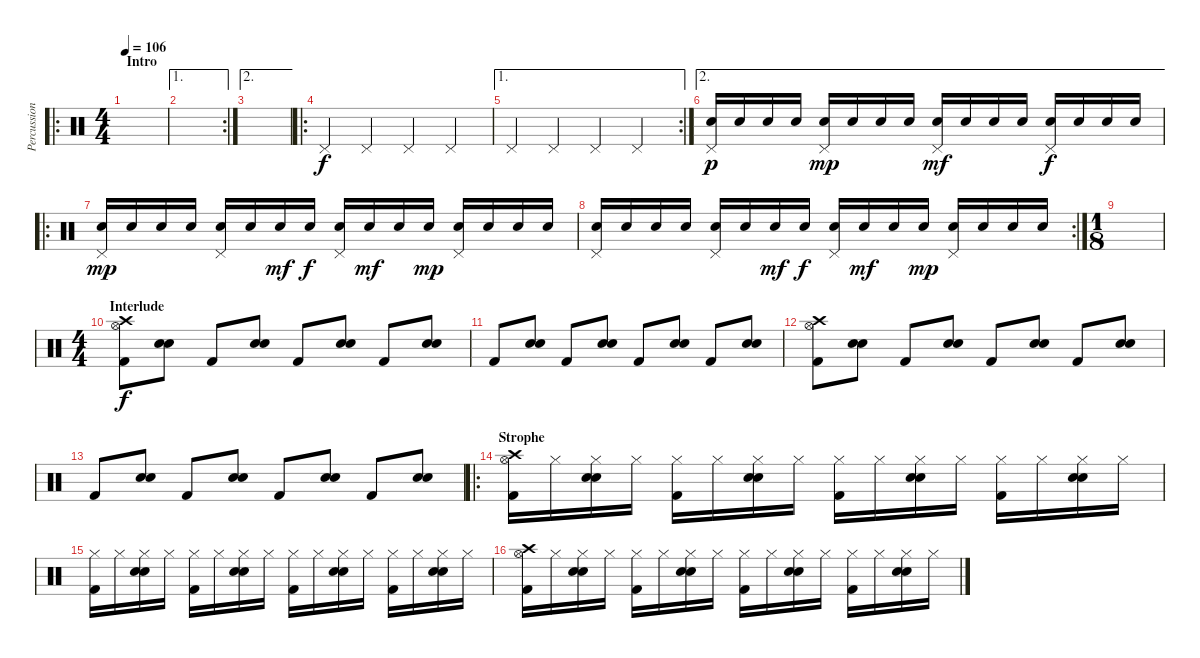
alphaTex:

\track ("Percussion" "Percussion") {instrument percussion}
\staff {score}
\articulation defaults
\ro
\ts (4 4)
\section ("" "Intro")
\tempo 106
\clef neutral
\ks c
|
\ae 1
\rc 2
|
\ae 2
|
\ro "Pedal Hi-Hat (hit)".4 "Pedal Hi-Hat (hit)".4 "Pedal Hi-Hat (hit)".4 "Pedal Hi-Hat (hit)".4
|
\ae 1
\rc 2 "Pedal Hi-Hat (hit)".4 "Pedal Hi-Hat (hit)".4 "Pedal Hi-Hat (hit)".4 "Pedal Hi-Hat (hit)".4
|
\ae 2
("Pedal Hi-Hat (hit)" "Electric Snare (hit)").16{dy p} "Electric Snare (hit)".16 "Electric Snare (hit)".16 "Electric Snare (hit)".16 ("Pedal Hi-Hat (hit)" "Electric Snare (hit)").16{dy mp} "Electric Snare (hit)".16 "Electric Snare (hit)".16 "Electric Snare (hit)".16 ("Pedal Hi-Hat (hit)" "Electric Snare (hit)").16{dy mf} "Electric Snare (hit)".16 "Electric Snare (hit)".16 "Electric Snare (hit)".16 ("Pedal Hi-Hat (hit)" "Electric Snare (hit)").16{dy f} "Electric Snare (hit)".16 "Electric Snare (hit)".16 "Electric Snare (hit)".16 |
\ro
("Pedal Hi-Hat (hit)" "Electric Snare (hit)").16{dy mp} "Electric Snare (hit)".16 "Electric Snare (hit)".16 "Electric Snare (hit)".16 ("Pedal Hi-Hat (hit)" "Electric Snare (hit)").16 "Electric Snare (hit)".16 "Electric Snare (hit)".16{dy mf} "Electric Snare (hit)".16{dy f} ("Pedal Hi-Hat (hit)" "Electric Snare (hit)").16 "Electric Snare (hit)".16{dy mf} "Electric Snare (hit)".16 "Electric Snare (hit)".16{dy mp} ("Pedal Hi-Hat (hit)" "Electric Snare (hit)").16 "Electric Snare (hit)".16 "Electric Snare (hit)".16 "Electric Snare (hit)".16 |
\rc 2
("Pedal Hi-Hat (hit)" "Electric Snare (hit)").16 "Electric Snare (hit)".16 "Electric Snare (hit)".16 "Electric Snare (hit)".16 ("Pedal Hi-Hat (hit)" "Electric Snare (hit)").16 "Electric Snare (hit)".16 "Electric Snare (hit)".16{dy mf} "Electric Snare (hit)".16{dy f} ("Pedal Hi-Hat (hit)" "Electric Snare (hit)").16 "Electric Snare (hit)".16{dy mf} "Electric Snare (hit)".16 "Electric Snare (hit)".16{dy mp} ("Pedal Hi-Hat (hit)" "Electric Snare (hit)").16 "Electric Snare (hit)".16 "Electric Snare (hit)".16 "Electric Snare (hit)".16 |
\ts (1 8)
|
\ts (4 4)
\section ("" "Interlude")
("Crash high (hit)" "Hi-Hat (open)" "Kick (hit) 2").8{dy f} ("Snare (hit) 2" "Electric Snare (hit)").8 "Kick (hit) 2".8 ("Snare (hit) 2" "Electric Snare (hit)").8 "Kick (hit) 2".8 ("Snare (hit) 2" "Electric Snare (hit)").8 "Kick (hit) 2".8 ("Snare (hit) 2" "Electric Snare (hit)").8 |
"Kick (hit) 2".8 ("Snare (hit) 2" "Electric Snare (hit)").8 "Kick (hit) 2".8 ("Snare (hit) 2" "Electric Snare (hit)").8 "Kick (hit) 2".8 ("Snare (hit) 2" "Electric Snare (hit)").8 "Kick (hit) 2".8 ("Snare (hit) 2" "Electric Snare (hit)").8 |
("Crash high (hit)" "Hi-Hat (open)" "Kick (hit) 2").8 ("Snare (hit) 2" "Electric Snare (hit)").8 "Kick (hit) 2".8 ("Snare (hit) 2" "Electric Snare (hit)").8 "Kick (hit) 2".8 ("Snare (hit) 2" "Electric Snare (hit)").8 "Kick (hit) 2".8 ("Snare (hit) 2" "Electric Snare (hit)").8 |
"Kick (hit) 2".8 ("Snare (hit) 2" "Electric Snare (hit)").8 "Kick (hit) 2".8 ("Snare (hit) 2" "Electric Snare (hit)").8 "Kick (hit) 2".8 ("Snare (hit) 2" "Electric Snare (hit)").8 "Kick (hit) 2".8 ("Snare (hit) 2" "Electric Snare (hit)").8 |
\ro
\section ("" "Strophe")
("Crash high (hit)" "Hi-Hat (open)" "Kick (hit) 2").16 "Hi-Hat (closed)".16 ("Hi-Hat (closed)" "Snare (hit) 2" "Electric Snare (hit)").16 "Hi-Hat (closed)".16 ("Hi-Hat (closed)" "Kick (hit) 2").16 "Hi-Hat (closed)".16 ("Hi-Hat (closed)" "Snare (hit) 2" "Electric Snare (hit)").16 "Hi-Hat (closed)".16 ("Hi-Hat (closed)" "Kick (hit) 2").16 "Hi-Hat (closed)".16 ("Hi-Hat (closed)" "Snare (hit) 2" "Electric Snare (hit)").16 "Hi-Hat (closed)".16 ("Hi-Hat (closed)" "Kick (hit) 2").16 "Hi-Hat (closed)".16 ("Hi-Hat (closed)" "Snare (hit) 2" "Electric Snare (hit)").16 "Hi-Hat (closed)".16 |
("Hi-Hat (closed)" "Kick (hit) 2").16 "Hi-Hat (closed)".16 ("Hi-Hat (closed)" "Snare (hit) 2" "Electric Snare (hit)").16 "Hi-Hat (closed)".16 ("Hi-Hat (closed)" "Kick (hit) 2").16 "Hi-Hat (closed)".16 ("Hi-Hat (closed)" "Snare (hit) 2" "Electric Snare (hit)").16 "Hi-Hat (closed)".16 ("Hi-Hat (closed)" "Kick (hit) 2").16 "Hi-Hat (closed)".16 ("Hi-Hat (closed)" "Snare (hit) 2" "Electric Snare (hit)").16 "Hi-Hat (closed)".16 ("Hi-Hat (closed)" "Kick (hit) 2").16 "Hi-Hat (closed)".16 ("Hi-Hat (closed)" "Snare (hit) 2" "Electric Snare (hit)").16 "Hi-Hat (closed)".16 |
("Crash high (hit)" "Hi-Hat (open)" "Kick (hit) 2").16 "Hi-Hat (closed)".16 ("Hi-Hat (closed)" "Snare (hit) 2" "Electric Snare (hit)").16 "Hi-Hat (closed)".16 ("Hi-Hat (closed)" "Kick (hit) 2").16 "Hi-Hat (closed)".16 ("Hi-Hat (closed)" "Snare (hit) 2" "Electric Snare (hit)").16 "Hi-Hat (closed)".16 ("Hi-Hat (closed)" "Kick (hit) 2").16 "Hi-Hat (closed)".16 ("Hi-Hat (closed)" "Snare (hit) 2" "Electric Snare (hit)").16 "Hi-Hat (closed)".16 ("Hi-Hat (closed)" "Kick (hit) 2").16 "Hi-Hat (closed)".16 ("Hi-Hat (closed)" "Snare (hit) 2" "Electric Snare (hit)").16 "Hi-Hat (closed)".16
